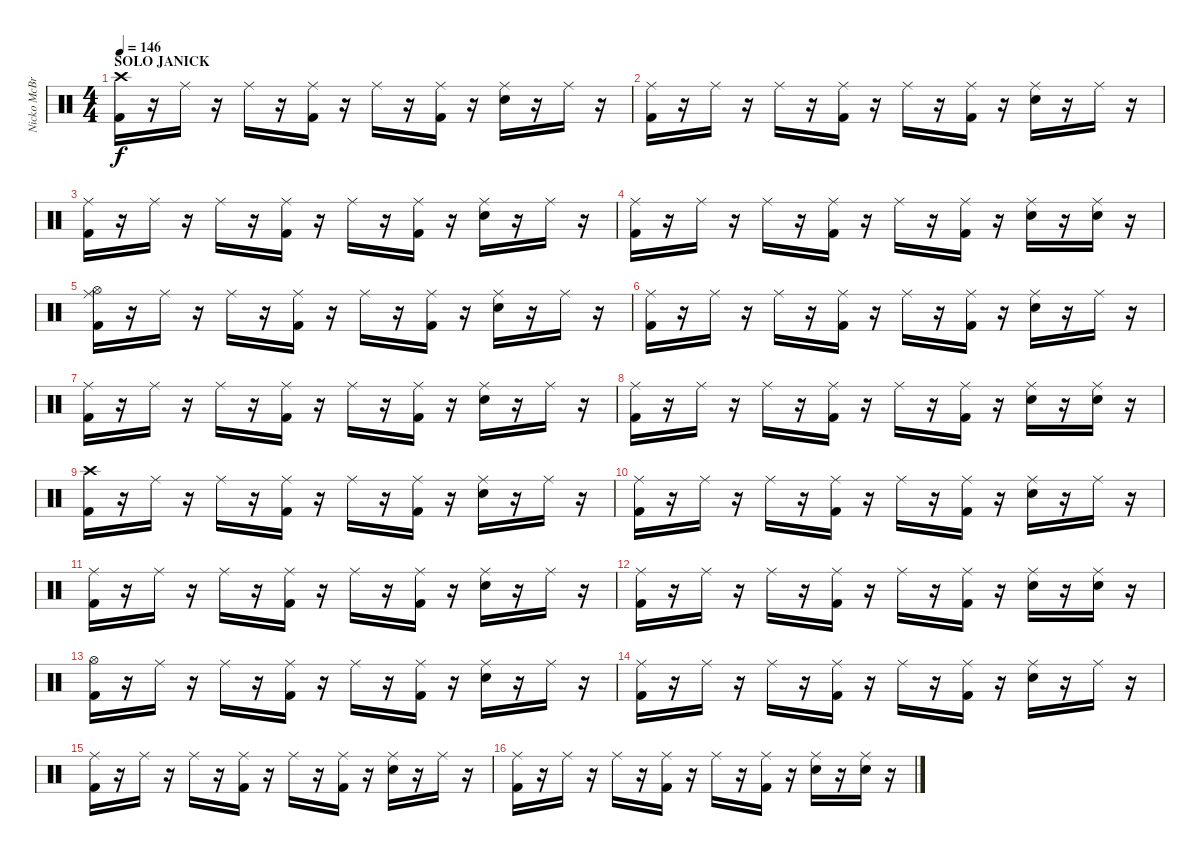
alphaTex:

\track ("Nicko McBrain" "Nicko McBr") {instrument percussion}
\staff {score}
\articulation defaults
\ts (4 4)
\section ("" "SOLO JANICK")
\tempo 146
\clef neutral
\ks c
("Crash high (hit)" "Kick (hit) 2").16{dy f} r.16 "Ride (middle)".16 r.16 "Ride (middle)".16 r.16 ("Ride (middle)" "Kick (hit) 2").16 r.16 "Ride (middle)".16 r.16 ("Ride (middle)" "Kick (hit) 2").16 r.16 ("Ride (middle)" "Snare (hit) 2").16 r.16 "Ride (middle)".16 r.16 |
("Ride (middle)" "Kick (hit) 2").16 r.16 "Ride (middle)".16 r.16 "Ride (middle)".16 r.16 ("Ride (middle)" "Kick (hit) 2").16 r.16 "Ride (middle)".16 r.16 ("Ride (middle)" "Kick (hit) 2").16 r.16 ("Ride (middle)" "Snare (hit) 2").16 r.16 "Ride (middle)".16 r.16 |
("Ride (middle)" "Kick (hit) 2").16 r.16 "Ride (middle)".16 r.16 "Ride (middle)".16 r.16 ("Ride (middle)" "Kick (hit) 2").16 r.16 "Ride (middle)".16 r.16 ("Ride (middle)" "Kick (hit) 2").16 r.16 ("Ride (middle)" "Snare (hit) 2").16 r.16 "Ride (middle)".16 r.16 |
("Ride (middle)" "Kick (hit) 2").16 r.16 "Ride (middle)".16 r.16 "Ride (middle)".16 r.16 ("Ride (middle)" "Kick (hit) 2").16 r.16 "Ride (middle)".16 r.16 ("Ride (middle)" "Kick (hit) 2").16 r.16 ("Ride (middle)" "Snare (hit) 2").16 r.16 ("Ride (middle)" "Snare (hit) 2").16 r.16 |
("Ride (middle)" "Hi-Hat (open)" "Kick (hit) 2").16 r.16 "Ride (middle)".16 r.16 "Ride (middle)".16 r.16 ("Ride (middle)" "Kick (hit) 2").16 r.16 "Ride (middle)".16 r.16 ("Ride (middle)" "Kick (hit) 2").16 r.16 ("Ride (middle)" "Snare (hit) 2").16 r.16 "Ride (middle)".16 r.16 |
("Ride (middle)" "Kick (hit) 2").16 r.16 "Ride (middle)".16 r.16 "Ride (middle)".16 r.16 ("Ride (middle)" "Kick (hit) 2").16 r.16 "Ride (middle)".16 r.16 ("Ride (middle)" "Kick (hit) 2").16 r.16 ("Ride (middle)" "Snare (hit) 2").16 r.16 "Ride (middle)".16 r.16 |
("Ride (middle)" "Kick (hit) 2").16 r.16 "Ride (middle)".16 r.16 "Ride (middle)".16 r.16 ("Ride (middle)" "Kick (hit) 2").16 r.16 "Ride (middle)".16 r.16 ("Ride (middle)" "Kick (hit) 2").16 r.16 ("Ride (middle)" "Snare (hit) 2").16 r.16 "Ride (middle)".16 r.16 |
("Ride (middle)" "Kick (hit) 2").16 r.16 "Ride (middle)".16 r.16 "Ride (middle)".16 r.16 ("Ride (middle)" "Kick (hit) 2").16 r.16 "Ride (middle)".16 r.16 ("Ride (middle)" "Kick (hit) 2").16 r.16 ("Ride (middle)" "Snare (hit) 2").16 r.16 ("Ride (middle)" "Snare (hit) 2").16 r.16 |
("Crash high (hit)" "Kick (hit) 2").16 r.16 "Ride (middle)".16 r.16 "Ride (middle)".16 r.16 ("Ride (middle)" "Kick (hit) 2").16 r.16 "Ride (middle)".16 r.16 ("Ride (middle)" "Kick (hit) 2").16 r.16 ("Ride (middle)" "Snare (hit) 2").16 r.16 "Ride (middle)".16 r.16 |
("Ride (middle)" "Kick (hit) 2").16 r.16 "Ride (middle)".16 r.16 "Ride (middle)".16 r.16 ("Ride (middle)" "Kick (hit) 2").16 r.16 "Ride (middle)".16 r.16 ("Ride (middle)" "Kick (hit) 2").16 r.16 ("Ride (middle)" "Snare (hit) 2").16 r.16 "Ride (middle)".16 r.16 |
("Ride (middle)" "Kick (hit) 2").16 r.16 "Ride (middle)".16 r.16 "Ride (middle)".16 r.16 ("Ride (middle)" "Kick (hit) 2").16 r.16 "Ride (middle)".16 r.16 ("Ride (middle)" "Kick (hit) 2").16 r.16 ("Ride (middle)" "Snare (hit) 2").16 r.16 "Ride (middle)".16 r.16 |
("Ride (middle)" "Kick (hit) 2").16 r.16 "Ride (middle)".16 r.16 "Ride (middle)".16 r.16 ("Ride (middle)" "Kick (hit) 2").16 r.16 "Ride (middle)".16 r.16 ("Ride (middle)" "Kick (hit) 2").16 r.16 ("Ride (middle)" "Snare (hit) 2").16 r.16 ("Ride (middle)" "Snare (hit) 2").16 r.16 |
("Hi-Hat (open)" "Kick (hit) 2").16 r.16 "Ride (middle)".16 r.16 "Ride (middle)".16 r.16 ("Ride (middle)" "Kick (hit) 2").16 r.16 "Ride (middle)".16 r.16 ("Ride (middle)" "Kick (hit) 2").16 r.16 ("Ride (middle)" "Snare (hit) 2").16 r.16 "Ride (middle)".16 r.16 |
("Ride (middle)" "Kick (hit) 2").16 r.16 "Ride (middle)".16 r.16 "Ride (middle)".16 r.16 ("Ride (middle)" "Kick (hit) 2").16 r.16 "Ride (middle)".16 r.16 ("Ride (middle)" "Kick (hit) 2").16 r.16 ("Ride (middle)" "Snare (hit) 2").16 r.16 "Ride (middle)".16 r.16 |
("Ride (middle)" "Kick (hit) 2").16 r.16 "Ride (middle)".16 r.16 "Ride (middle)".16 r.16 ("Ride (middle)" "Kick (hit) 2").16 r.16 "Ride (middle)".16 r.16 ("Ride (middle)" "Kick (hit) 2").16 r.16 ("Ride (middle)" "Snare (hit) 2").16 r.16 "Ride (middle)".16 r.16 |
("Ride (middle)" "Kick (hit) 2").16 r.16 "Ride (middle)".16 r.16 "Ride (middle)".16 r.16 ("Ride (middle)" "Kick (hit) 2").16 r.16 "Ride (middle)".16 r.16 ("Ride (middle)" "Kick (hit) 2").16 r.16 ("Ride (middle)" "Snare (hit) 2").16 r.16 ("Ride (middle)" "Snare (hit) 2").16 r.16
